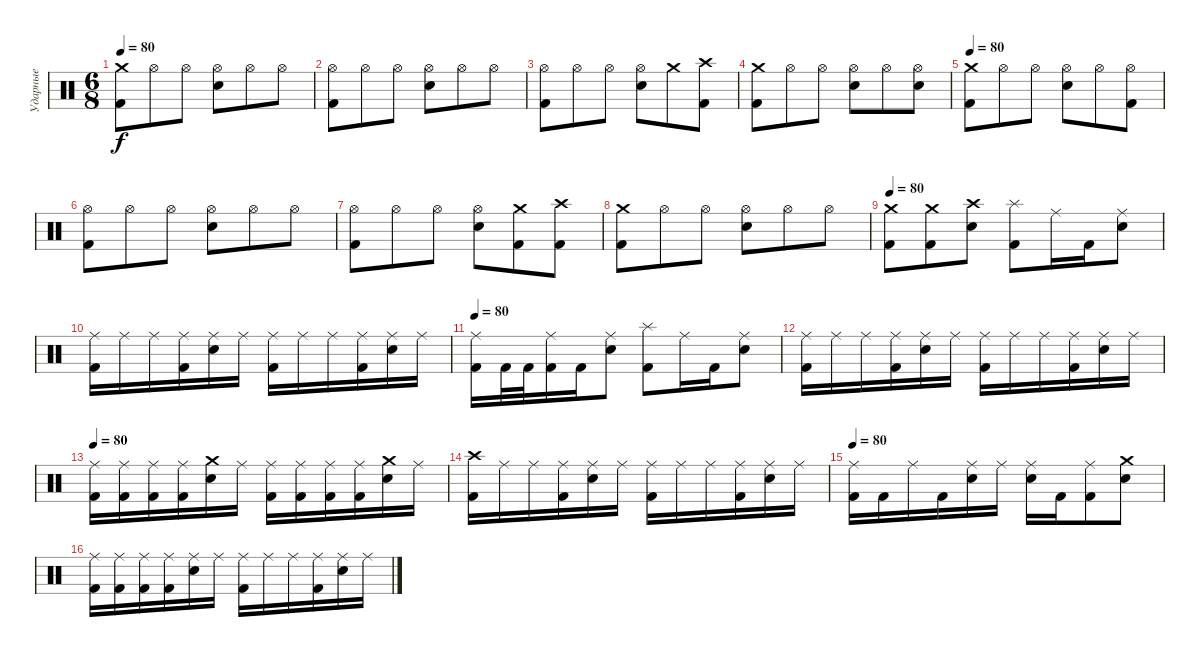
\track ("Ударные" "Ударные") {instrument percussion}
\staff {score}
\articulation defaults
\ts (6 8)
\tempo 80
\clef neutral
\ks c
("Crash medium (hit)" "Kick (hit) 2").8{dy f} "Hi-Hat (open)".8 "Hi-Hat (open)".8 ("Hi-Hat (open)" "Electric Snare (hit)").8 "Hi-Hat (open)".8 "Hi-Hat (open)".8 |
("Hi-Hat (open)" "Kick (hit) 2").8 "Hi-Hat (open)".8 "Hi-Hat (open)".8 ("Hi-Hat (open)" "Electric Snare (hit)").8 "Hi-Hat (open)".8 "Hi-Hat (open)".8 |
("Hi-Hat (open)" "Kick (hit) 2").8 "Hi-Hat (open)".8 "Hi-Hat (open)".8 ("Hi-Hat (open)" "Electric Snare (hit)").8 "Crash medium (hit)".8 ("Crash high (hit)" "Kick (hit) 2").8 |
("Crash medium (hit)" "Kick (hit) 2").8 "Hi-Hat (open)".8 "Hi-Hat (open)".8 ("Hi-Hat (open)" "Electric Snare (hit)").8 "Hi-Hat (open)".8 ("Hi-Hat (open)" "Electric Snare (hit)").8 |
\tempo 80
("Crash medium (hit)" "Kick (hit) 2").8 "Hi-Hat (open)".8 "Hi-Hat (open)".8 ("Hi-Hat (open)" "Electric Snare (hit)").8 "Hi-Hat (open)".8 ("Hi-Hat (open)" "Kick (hit) 2").8 |
("Hi-Hat (open)" "Kick (hit) 2").8 "Hi-Hat (open)".8 "Hi-Hat (open)".8 ("Hi-Hat (open)" "Electric Snare (hit)").8 "Hi-Hat (open)".8 "Hi-Hat (open)".8 |
("Hi-Hat (open)" "Kick (hit) 2").8 "Hi-Hat (open)".8 "Hi-Hat (open)".8 ("Hi-Hat (open)" "Electric Snare (hit)").8 ("Crash medium (hit)" "Kick (hit) 2").8 ("Crash high (hit)" "Kick (hit) 2").8 |
("Crash medium (hit)" "Kick (hit) 2").8 "Hi-Hat (open)".8 "Hi-Hat (open)".8 ("Hi-Hat (open)" "Electric Snare (hit)").8 "Hi-Hat (open)".8 "Hi-Hat (open)".8 |
\tempo 80
("Kick (hit) 2" "Crash medium (hit)").8 ("Kick (hit) 2" "Crash medium (hit)").8 ("Electric Snare (hit)" "Crash high (hit)").8 ("Kick (hit) 2" "Splash (hit)").8 "Ride (middle)".16 "Kick (hit) 2".16 ("Electric Snare (hit)" "Ride (middle)").8 |
("Kick (hit) 2" "Ride (middle)").16 "Ride (middle)".16 "Ride (middle)".16 ("Kick (hit) 2" "Ride (middle)").16 ("Electric Snare (hit)" "Ride (middle)").16 "Ride (middle)".16 ("Kick (hit) 2" "Ride (middle)").16 "Ride (middle)".16 "Ride (middle)".16 ("Kick (hit) 2" "Ride (middle)").16 ("Electric Snare (hit)" "Ride (middle)").16 "Ride (middle)".16 |
\tempo 80
("Kick (hit) 2" "Ride (middle)").16 "Kick (hit) 2".32 "Kick (hit) 2".32 ("Kick (hit) 2" "Ride (middle)").16 "Kick (hit) 2".16 ("Electric Snare (hit)" "Ride (middle)").8 ("Kick (hit) 2" "Splash (hit)").8 "Ride (middle)".16 "Kick (hit) 2".16 ("Electric Snare (hit)" "Ride (middle)").8 |
("Kick (hit) 2" "Ride (middle)").16 "Ride (middle)".16 "Ride (middle)".16 ("Kick (hit) 2" "Ride (middle)").16 ("Electric Snare (hit)" "Ride (middle)").16 "Ride (middle)".16 ("Kick (hit) 2" "Ride (middle)").16 "Ride (middle)".16 "Ride (middle)".16 ("Kick (hit) 2" "Ride (middle)").16 ("Electric Snare (hit)" "Ride (middle)").16 "Ride (middle)".16 |
\tempo 80
("Kick (hit) 2" "Ride (middle)").16 ("Kick (hit) 2" "Ride (middle)").16 ("Kick (hit) 2" "Ride (middle)").16 ("Kick (hit) 2" "Ride (middle)").16 ("Electric Snare (hit)" "Crash medium (hit)").16 "Ride (middle)".16 ("Kick (hit) 2" "Ride (middle)").16 ("Kick (hit) 2" "Ride (middle)").16 ("Kick (hit) 2" "Ride (middle)").16 ("Kick (hit) 2" "Ride (middle)").16 ("Electric Snare (hit)" "Crash medium (hit)").16 "Ride (middle)".16 |
("Kick (hit) 2" "Crash high (hit)").16 "Ride (middle)".16 "Ride (middle)".16 ("Kick (hit) 2" "Ride (middle)").16 ("Electric Snare (hit)" "Ride (middle)").16 "Ride (middle)".16 ("Kick (hit) 2" "Ride (middle)").16 "Ride (middle)".16 "Ride (middle)".16 ("Kick (hit) 2" "Ride (middle)").16 ("Electric Snare (hit)" "Ride (middle)").16 "Ride (middle)".16 |
\tempo 80
("Kick (hit) 2" "Ride (middle)").16 "Kick (hit) 2".16 "Ride (middle)".16 "Kick (hit) 2".16 ("Electric Snare (hit)" "Ride (middle)").16 "Ride (middle)".16 ("Electric Snare (hit)" "Ride (middle)").16 "Kick (hit) 2".16 ("Kick (hit) 2" "Ride (middle)").8 ("Electric Snare (hit)" "Crash medium (hit)").8 |
("Kick (hit) 2" "Ride (middle)").16 ("Kick (hit) 2" "Ride (middle)").16 ("Kick (hit) 2" "Ride (middle)").16 ("Kick (hit) 2" "Ride (middle)").16 ("Electric Snare (hit)" "Ride (middle)").16 "Ride (middle)".16 ("Kick (hit) 2" "Ride (middle)").16 "Ride (middle)".16 "Ride (middle)".16 ("Kick (hit) 2" "Ride (middle)").16 ("Electric Snare (hit)" "Ride (middle)").16 "Ride (middle)".16
